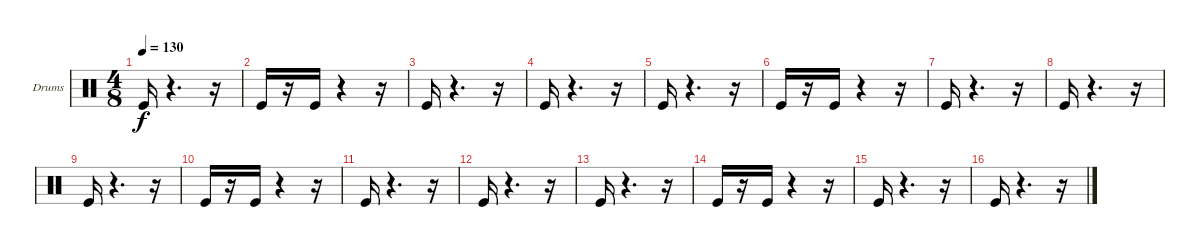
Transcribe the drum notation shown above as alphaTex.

\bracketExtendMode groupsimilarinstruments
\firstSystemTrackNameOrientation horizontal
\otherSystemsTrackNameOrientation horizontal
\track ("Ударные" "Drums") {instrument percussion}
\staff {score}
\articulation defaults
\ts (4 8)
\tempo 130
\clef neutral
\ks c "Kick (hit)".16{dy f}
r.4{d} r.16 |
"Kick (hit)".16 r.16 "Kick (hit)".16 r.4 r.16 |
"Kick (hit)".16 r.4{d} r.16 |
"Kick (hit)".16 r.4{d} r.16 |
"Kick (hit)".16 r.4{d} r.16 |
"Kick (hit)".16 r.16 "Kick (hit)".16 r.4 r.16 |
"Kick (hit)".16 r.4{d} r.16 |
"Kick (hit)".16 r.4{d} r.16 |
"Kick (hit)".16 r.4{d} r.16 |
"Kick (hit)".16 r.16 "Kick (hit)".16 r.4 r.16 |
"Kick (hit)".16 r.4{d} r.16 |
"Kick (hit)".16 r.4{d} r.16 |
"Kick (hit)".16 r.4{d} r.16 |
"Kick (hit)".16 r.16 "Kick (hit)".16 r.4 r.16 |
"Kick (hit)".16 r.4{d} r.16 |
"Kick (hit)".16 r.4{d} r.16
